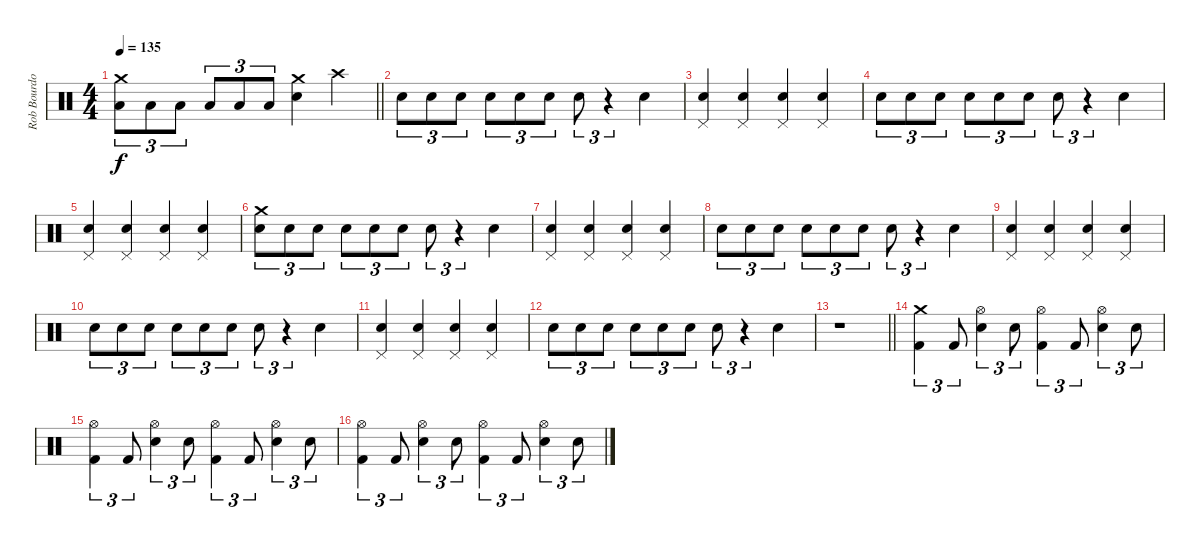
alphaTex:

\track ("Rob Bourdon [Drums]" "Rob Bourdo") {instrument percussion bank 5}
\staff {score}
\articulation defaults
\ts (4 4)
\tempo 135
\clef neutral
\barLineRight lightlight
\ks c
("Crash medium (hit)" "Low Tom (hit)").8{tu (3 2) dy f} "Low Tom (hit)".8{tu (3 2)} "Low Tom (hit)".8{tu (3 2)} "Low Tom (hit)".8{tu (3 2)} "Low Tom (hit)".8{tu (3 2)} "Low Tom (hit)".8{tu (3 2)} ("Crash medium (hit)" "Electric Snare (hit)").4 "Crash high (hit)".4 |
"Electric Snare (hit)".8{tu (3 2)} "Electric Snare (hit)".8{tu (3 2)} "Electric Snare (hit)".8{tu (3 2)} "Electric Snare (hit)".8{tu (3 2)} "Electric Snare (hit)".8{tu (3 2)} "Electric Snare (hit)".8{tu (3 2)} "Electric Snare (hit)".8{tu (3 2)} r.4{tu (3 2)} "Hand Clap (hit)".4 |
("Pedal Hi-Hat (hit)" "Hand Clap (hit)").4 ("Pedal Hi-Hat (hit)" "Hand Clap (hit)").4 ("Pedal Hi-Hat (hit)" "Hand Clap (hit)").4 ("Pedal Hi-Hat (hit)" "Hand Clap (hit)").4 |
"Electric Snare (hit)".8{tu (3 2)} "Electric Snare (hit)".8{tu (3 2)} "Electric Snare (hit)".8{tu (3 2)} "Electric Snare (hit)".8{tu (3 2)} "Electric Snare (hit)".8{tu (3 2)} "Electric Snare (hit)".8{tu (3 2)} "Electric Snare (hit)".8{tu (3 2)} r.4{tu (3 2)} "Hand Clap (hit)".4 |
("Pedal Hi-Hat (hit)" "Hand Clap (hit)").4 ("Pedal Hi-Hat (hit)" "Hand Clap (hit)").4 ("Pedal Hi-Hat (hit)" "Hand Clap (hit)").4 ("Pedal Hi-Hat (hit)" "Hand Clap (hit)").4 |
("Crash medium (hit)" "Electric Snare (hit)").8{tu (3 2)} "Electric Snare (hit)".8{tu (3 2)} "Electric Snare (hit)".8{tu (3 2)} "Electric Snare (hit)".8{tu (3 2)} "Electric Snare (hit)".8{tu (3 2)} "Electric Snare (hit)".8{tu (3 2)} "Electric Snare (hit)".8{tu (3 2)} r.4{tu (3 2)} "Hand Clap (hit)".4 |
("Pedal Hi-Hat (hit)" "Hand Clap (hit)").4 ("Pedal Hi-Hat (hit)" "Hand Clap (hit)").4 ("Pedal Hi-Hat (hit)" "Hand Clap (hit)").4 ("Pedal Hi-Hat (hit)" "Hand Clap (hit)").4 |
"Electric Snare (hit)".8{tu (3 2)} "Electric Snare (hit)".8{tu (3 2)} "Electric Snare (hit)".8{tu (3 2)} "Electric Snare (hit)".8{tu (3 2)} "Electric Snare (hit)".8{tu (3 2)} "Electric Snare (hit)".8{tu (3 2)} "Electric Snare (hit)".8{tu (3 2)} r.4{tu (3 2)} "Hand Clap (hit)".4 |
("Pedal Hi-Hat (hit)" "Hand Clap (hit)").4 ("Pedal Hi-Hat (hit)" "Hand Clap (hit)").4 ("Pedal Hi-Hat (hit)" "Hand Clap (hit)").4 ("Pedal Hi-Hat (hit)" "Hand Clap (hit)").4 |
"Electric Snare (hit)".8{tu (3 2)} "Electric Snare (hit)".8{tu (3 2)} "Electric Snare (hit)".8{tu (3 2)} "Electric Snare (hit)".8{tu (3 2)} "Electric Snare (hit)".8{tu (3 2)} "Electric Snare (hit)".8{tu (3 2)} "Electric Snare (hit)".8{tu (3 2)} r.4{tu (3 2)} "Hand Clap (hit)".4 |
("Pedal Hi-Hat (hit)" "Hand Clap (hit)").4 ("Pedal Hi-Hat (hit)" "Hand Clap (hit)").4 ("Pedal Hi-Hat (hit)" "Hand Clap (hit)").4 ("Pedal Hi-Hat (hit)" "Hand Clap (hit)").4 |
"Electric Snare (hit)".8{tu (3 2)} "Electric Snare (hit)".8{tu (3 2)} "Electric Snare (hit)".8{tu (3 2)} "Electric Snare (hit)".8{tu (3 2)} "Electric Snare (hit)".8{tu (3 2)} "Electric Snare (hit)".8{tu (3 2)} "Electric Snare (hit)".8{tu (3 2)} r.4{tu (3 2)} "Hand Clap (hit)".4 |
\barLineRight lightlight
r.1 |
("Crash medium (hit)" "Kick (hit) 2").4{tu (3 2)} "Kick (hit) 2".8{tu (3 2)} ("Hi-Hat (open)" "Electric Snare (hit)").4{tu (3 2)} "Electric Snare (hit)".8{tu (3 2)} ("Hi-Hat (open)" "Kick (hit) 2").4{tu (3 2)} "Kick (hit) 2".8{tu (3 2)} ("Hi-Hat (open)" "Electric Snare (hit)").4{tu (3 2)} "Electric Snare (hit)".8{tu (3 2)} |
("Hi-Hat (open)" "Kick (hit) 2").4{tu (3 2)} "Kick (hit) 2".8{tu (3 2)} ("Hi-Hat (open)" "Electric Snare (hit)").4{tu (3 2)} "Electric Snare (hit)".8{tu (3 2)} ("Hi-Hat (open)" "Kick (hit) 2").4{tu (3 2)} "Kick (hit) 2".8{tu (3 2)} ("Hi-Hat (open)" "Electric Snare (hit)").4{tu (3 2)} "Electric Snare (hit)".8{tu (3 2)} |
("Hi-Hat (open)" "Kick (hit) 2").4{tu (3 2)} "Kick (hit) 2".8{tu (3 2)} ("Hi-Hat (open)" "Electric Snare (hit)").4{tu (3 2)} "Electric Snare (hit)".8{tu (3 2)} ("Hi-Hat (open)" "Kick (hit) 2").4{tu (3 2)} "Kick (hit) 2".8{tu (3 2)} ("Hi-Hat (open)" "Electric Snare (hit)").4{tu (3 2)} "Electric Snare (hit)".8{tu (3 2)}
